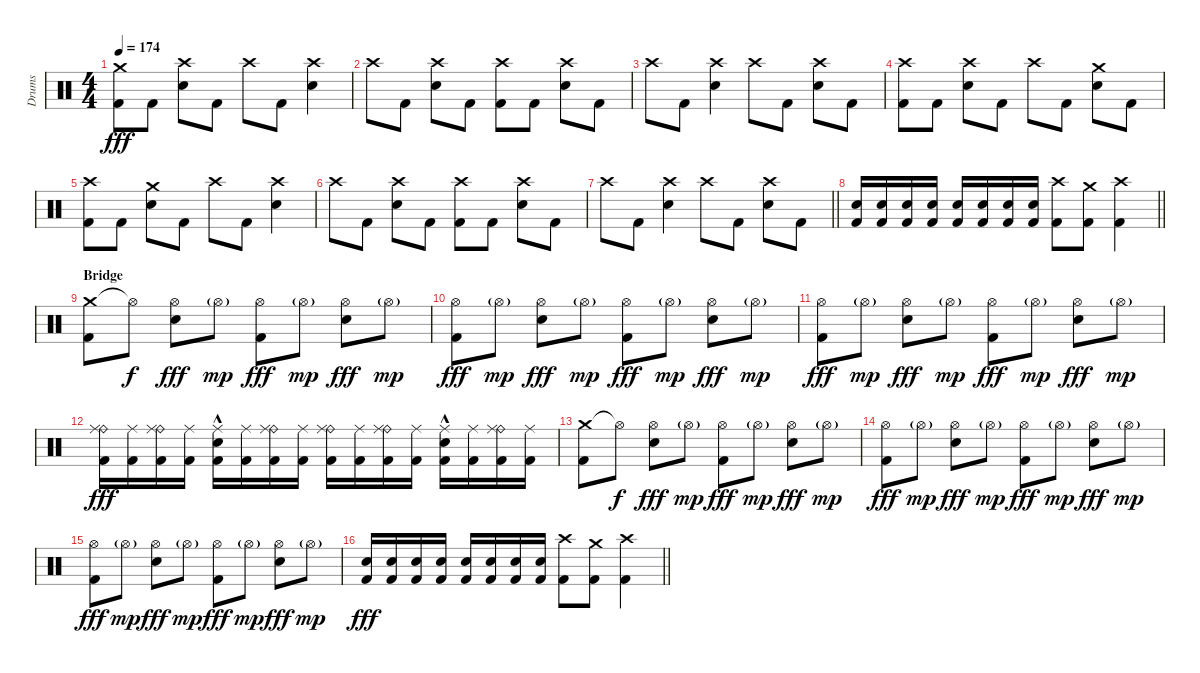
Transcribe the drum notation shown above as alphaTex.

\track ("Drums" "Drums") {instrument percussion}
\staff {score}
\articulation defaults
\ts (4 4)
\tempo 174
\clef neutral
\ks c
("Crash medium (hit)" "Kick (hit) 2").8{dy fff} "Kick (hit) 2".8 ("Crash high (hit)" "Snare (hit) 2").8 "Kick (hit) 2".8 "Crash high (hit)".8 "Kick (hit) 2".8 ("Crash high (hit)" "Snare (hit) 2").4 |
"Crash high (hit)".8 "Kick (hit) 2".8 ("Crash high (hit)" "Snare (hit) 2").8 "Kick (hit) 2".8 ("Crash high (hit)" "Kick (hit) 2").8 "Kick (hit) 2".8 ("Crash high (hit)" "Snare (hit) 2").8 "Kick (hit) 2".8 |
"Crash high (hit)".8 "Kick (hit) 2".8 ("Crash high (hit)" "Snare (hit) 2").4 "Crash high (hit)".8 "Kick (hit) 2".8 ("Crash high (hit)" "Snare (hit) 2").8 "Kick (hit) 2".8 |
("Crash high (hit)" "Kick (hit) 2").8 "Kick (hit) 2".8 ("Crash high (hit)" "Snare (hit) 2").8 "Kick (hit) 2".8 "Crash high (hit)".8 "Kick (hit) 2".8 ("Crash medium (hit)" "Snare (hit) 2").8 "Kick (hit) 2".8 |
("Crash high (hit)" "Kick (hit) 2").8 "Kick (hit) 2".8 ("Crash medium (hit)" "Snare (hit) 2").8 "Kick (hit) 2".8 "Crash high (hit)".8 "Kick (hit) 2".8 ("Crash high (hit)" "Snare (hit) 2").4 |
"Crash high (hit)".8 "Kick (hit) 2".8 ("Crash high (hit)" "Snare (hit) 2").8 "Kick (hit) 2".8 ("Crash high (hit)" "Kick (hit) 2").8 "Kick (hit) 2".8 ("Crash high (hit)" "Snare (hit) 2").8 "Kick (hit) 2".8 |
\barLineRight lightlight "Crash high (hit)".8 "Kick (hit) 2".8
("Crash high (hit)" "Snare (hit) 2").4 "Crash high (hit)".8 "Kick (hit) 2".8 ("Crash high (hit)" "Snare (hit) 2").8 "Kick (hit) 2".8 |
\barLineRight lightlight
("Snare (hit) 2" "Kick (hit) 2").16 ("Snare (hit) 2" "Kick (hit) 2").16 ("Snare (hit) 2" "Kick (hit) 2").16 ("Snare (hit) 2" "Kick (hit) 2").16 ("Snare (hit) 2" "Kick (hit) 2").16 ("Snare (hit) 2" "Kick (hit) 2").16 ("Snare (hit) 2" "Kick (hit) 2").16 ("Snare (hit) 2" "Kick (hit) 2").16 ("Crash high (hit)" "Kick (hit) 2").8 ("Crash medium (hit)" "Kick (hit) 2").8 ("Crash high (hit)" "Kick (hit) 2").4 |
\section ("" "Bridge")
("Crash medium (hit)" "Kick (hit) 2").8 "Hi-Hat (open)"{t}.8{dy f} ("Hi-Hat (open)" "Snare (hit) 2").8{dy fff} "Hi-Hat (open)"{g}.8{dy mp} ("Hi-Hat (open)" "Kick (hit) 2").8{dy fff} "Hi-Hat (open)"{g}.8{dy mp} ("Hi-Hat (open)" "Snare (hit) 2").8{dy fff} "Hi-Hat (open)"{g}.8{dy mp} |
("Hi-Hat (open)" "Kick (hit) 2").8{dy fff} "Hi-Hat (open)"{g}.8{dy mp} ("Hi-Hat (open)" "Snare (hit) 2").8{dy fff} "Hi-Hat (open)"{g}.8{dy mp} ("Hi-Hat (open)" "Kick (hit) 2").8{dy fff} "Hi-Hat (open)"{g}.8{dy mp} ("Hi-Hat (open)" "Snare (hit) 2").8{dy fff} "Hi-Hat (open)"{g}.8{dy mp} |
("Hi-Hat (open)" "Kick (hit) 2").8{dy fff} "Hi-Hat (open)"{g}.8{dy mp} ("Hi-Hat (open)" "Snare (hit) 2").8{dy fff} "Hi-Hat (open)"{g}.8{dy mp} ("Hi-Hat (open)" "Kick (hit) 2").8{dy fff} "Hi-Hat (open)"{g}.8{dy mp} ("Hi-Hat (open)" "Snare (hit) 2").8{dy fff} "Hi-Hat (open)"{g}.8{dy mp} |
("Ride (bell)" "Ride (middle)" "Kick (hit) 2").16{dy fff} ("Ride (middle)" "Kick (hit) 2").16 ("Ride (bell)" "Ride (middle)" "Kick (hit) 2").16 ("Ride (middle)" "Kick (hit) 2").16 ("Ride (middle)" "Snare (hit) 2"{hac} "Kick (hit) 2").16 ("Ride (middle)" "Kick (hit) 2").16 ("Ride (bell)" "Ride (middle)" "Kick (hit) 2").16 ("Ride (middle)" "Kick (hit) 2").16 ("Ride (bell)" "Ride (middle)" "Kick (hit) 2").16 ("Ride (middle)" "Kick (hit) 2").16 ("Ride (bell)" "Ride (middle)" "Kick (hit) 2").16 ("Ride (middle)" "Kick (hit) 2").16 ("Ride (middle)" "Snare (hit) 2"{hac} "Kick (hit) 2").16 ("Ride (middle)" "Kick (hit) 2").16 ("Ride (bell)" "Ride (middle)" "Kick (hit) 2").16 ("Ride (middle)" "Kick (hit) 2").16 |
("Crash medium (hit)" "Kick (hit) 2").8 "Hi-Hat (open)"{t}.8{dy f} ("Hi-Hat (open)" "Snare (hit) 2").8{dy fff} "Hi-Hat (open)"{g}.8{dy mp} ("Hi-Hat (open)" "Kick (hit) 2").8{dy fff} "Hi-Hat (open)"{g}.8{dy mp} ("Hi-Hat (open)" "Snare (hit) 2").8{dy fff} "Hi-Hat (open)"{g}.8{dy mp} |
("Hi-Hat (open)" "Kick (hit) 2").8{dy fff} "Hi-Hat (open)"{g}.8{dy mp} ("Hi-Hat (open)" "Snare (hit) 2").8{dy fff} "Hi-Hat (open)"{g}.8{dy mp} ("Hi-Hat (open)" "Kick (hit) 2").8{dy fff} "Hi-Hat (open)"{g}.8{dy mp} ("Hi-Hat (open)" "Snare (hit) 2").8{dy fff} "Hi-Hat (open)"{g}.8{dy mp} |
("Hi-Hat (open)" "Kick (hit) 2").8{dy fff} "Hi-Hat (open)"{g}.8{dy mp} ("Hi-Hat (open)" "Snare (hit) 2").8{dy fff} "Hi-Hat (open)"{g}.8{dy mp} ("Hi-Hat (open)" "Kick (hit) 2").8{dy fff} "Hi-Hat (open)"{g}.8{dy mp} ("Hi-Hat (open)" "Snare (hit) 2").8{dy fff} "Hi-Hat (open)"{g}.8{dy mp} |
\barLineRight lightlight
("Snare (hit) 2" "Kick (hit) 2").16{dy fff} ("Snare (hit) 2" "Kick (hit) 2").16 ("Snare (hit) 2" "Kick (hit) 2").16 ("Snare (hit) 2" "Kick (hit) 2").16 ("Snare (hit) 2" "Kick (hit) 2").16 ("Snare (hit) 2" "Kick (hit) 2").16 ("Snare (hit) 2" "Kick (hit) 2").16 ("Snare (hit) 2" "Kick (hit) 2").16 ("Crash high (hit)" "Kick (hit) 2").8 ("Crash medium (hit)" "Kick (hit) 2").8 ("Crash high (hit)" "Kick (hit) 2").4
